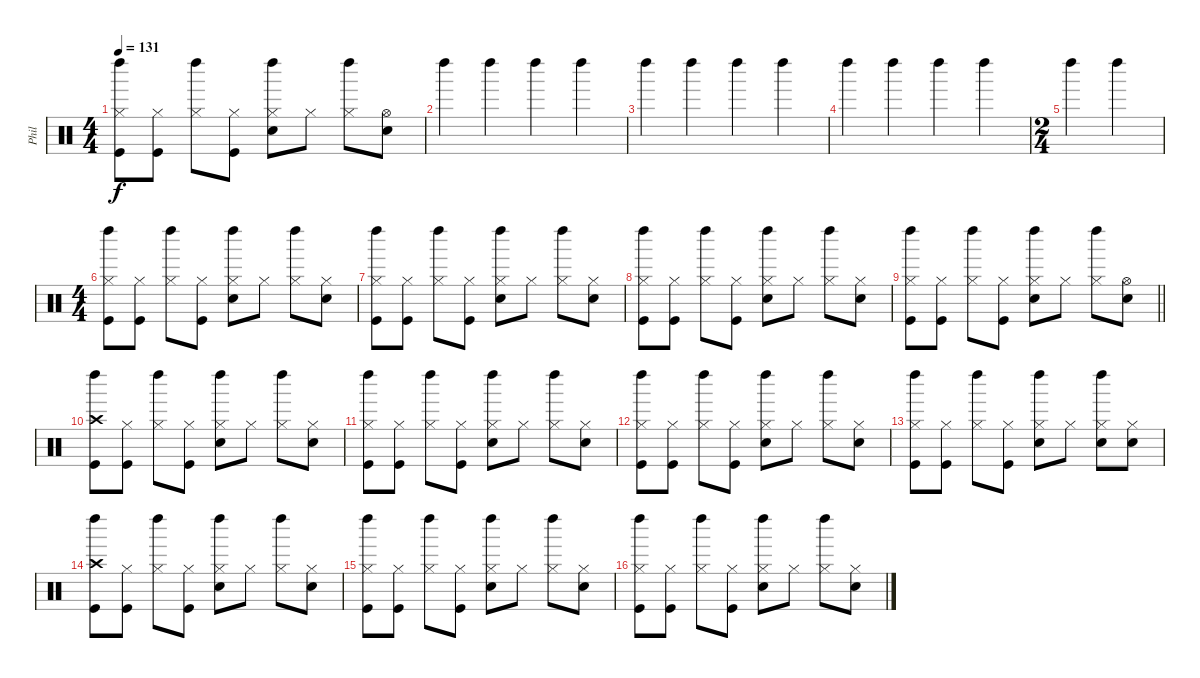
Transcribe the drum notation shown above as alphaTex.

\track ("Phil" "Phil") {instrument percussion}
\staff {score}
\articulation defaults
\ts (4 4)
\tempo 131
\clef neutral
\ks c
("Left Maraca (hit)" "Hi-Hat (closed)" "Kick (hit)").8{dy f} ("Hi-Hat (closed)" "Kick (hit)").8 ("Left Maraca (hit)" "Hi-Hat (closed)").8 ("Hi-Hat (closed)" "Kick (hit)").8 ("Left Maraca (hit)" "Hi-Hat (closed)" "Electric Snare (hit)").8 "Hi-Hat (closed)".8 ("Left Maraca (hit)" "Hi-Hat (closed)").8 ("Hi-Hat (open)" "Electric Snare (hit)").8 |
"Left Maraca (hit)".4 "Left Maraca (hit)".4 "Left Maraca (hit)".4 "Left Maraca (hit)".4 |
"Left Maraca (hit)".4 "Left Maraca (hit)".4 "Left Maraca (hit)".4 "Left Maraca (hit)".4 |
"Left Maraca (hit)".4 "Left Maraca (hit)".4 "Left Maraca (hit)".4 "Left Maraca (hit)".4 |
\ts (2 4)
"Left Maraca (hit)".4 "Left Maraca (hit)".4 |
\ts (4 4)
("Left Maraca (hit)" "Hi-Hat (closed)" "Kick (hit)").8 ("Hi-Hat (closed)" "Kick (hit)").8 ("Left Maraca (hit)" "Hi-Hat (closed)").8 ("Hi-Hat (closed)" "Kick (hit)").8 ("Left Maraca (hit)" "Hi-Hat (closed)" "Electric Snare (hit)").8 "Hi-Hat (closed)".8 ("Left Maraca (hit)" "Hi-Hat (closed)").8 ("Hi-Hat (closed)" "Electric Snare (hit)").8 |
("Left Maraca (hit)" "Hi-Hat (closed)" "Kick (hit)").8 ("Hi-Hat (closed)" "Kick (hit)").8 ("Left Maraca (hit)" "Hi-Hat (closed)").8 ("Hi-Hat (closed)" "Kick (hit)").8 ("Left Maraca (hit)" "Hi-Hat (closed)" "Electric Snare (hit)").8 "Hi-Hat (closed)".8 ("Left Maraca (hit)" "Hi-Hat (closed)").8 ("Hi-Hat (closed)" "Electric Snare (hit)").8 |
("Left Maraca (hit)" "Hi-Hat (closed)" "Kick (hit)").8 ("Hi-Hat (closed)" "Kick (hit)").8 ("Left Maraca (hit)" "Hi-Hat (closed)").8 ("Hi-Hat (closed)" "Kick (hit)").8 ("Left Maraca (hit)" "Hi-Hat (closed)" "Electric Snare (hit)").8 "Hi-Hat (closed)".8 ("Left Maraca (hit)" "Hi-Hat (closed)").8 ("Hi-Hat (closed)" "Electric Snare (hit)").8 |
\barLineRight lightlight
("Left Maraca (hit)" "Hi-Hat (closed)" "Kick (hit)").8 ("Hi-Hat (closed)" "Kick (hit)").8 ("Left Maraca (hit)" "Hi-Hat (closed)").8 ("Hi-Hat (closed)" "Kick (hit)").8 ("Left Maraca (hit)" "Hi-Hat (closed)" "Electric Snare (hit)").8 "Hi-Hat (closed)".8 ("Left Maraca (hit)" "Hi-Hat (closed)").8 ("Hi-Hat (open)" "Electric Snare (hit)").8 |
("Left Maraca (hit)" "Crash high (hit)" "Kick (hit)").8 ("Hi-Hat (closed)" "Kick (hit)").8 ("Left Maraca (hit)" "Hi-Hat (closed)").8 ("Hi-Hat (closed)" "Kick (hit)").8 ("Left Maraca (hit)" "Hi-Hat (closed)" "Electric Snare (hit)").8 "Hi-Hat (closed)".8 ("Left Maraca (hit)" "Hi-Hat (closed)").8 ("Hi-Hat (closed)" "Electric Snare (hit)").8 |
("Left Maraca (hit)" "Hi-Hat (closed)" "Kick (hit)").8 ("Hi-Hat (closed)" "Kick (hit)").8 ("Left Maraca (hit)" "Hi-Hat (closed)").8 ("Hi-Hat (closed)" "Kick (hit)").8 ("Left Maraca (hit)" "Hi-Hat (closed)" "Electric Snare (hit)").8 "Hi-Hat (closed)".8 ("Left Maraca (hit)" "Hi-Hat (closed)").8 ("Hi-Hat (closed)" "Electric Snare (hit)").8 |
("Left Maraca (hit)" "Hi-Hat (closed)" "Kick (hit)").8 ("Hi-Hat (closed)" "Kick (hit)").8 ("Left Maraca (hit)" "Hi-Hat (closed)").8 ("Hi-Hat (closed)" "Kick (hit)").8 ("Left Maraca (hit)" "Hi-Hat (closed)" "Electric Snare (hit)").8 "Hi-Hat (closed)".8 ("Left Maraca (hit)" "Hi-Hat (closed)").8 ("Hi-Hat (closed)" "Electric Snare (hit)").8 |
("Left Maraca (hit)" "Hi-Hat (closed)" "Kick (hit)").8 ("Hi-Hat (closed)" "Kick (hit)").8 ("Left Maraca (hit)" "Hi-Hat (closed)").8 ("Hi-Hat (closed)" "Kick (hit)").8 ("Left Maraca (hit)" "Hi-Hat (closed)" "Electric Snare (hit)").8 "Hi-Hat (closed)".8 ("Left Maraca (hit)" "Hi-Hat (closed)" "Electric Snare (hit)").8 ("Hi-Hat (closed)" "Electric Snare (hit)").8 |
("Left Maraca (hit)" "Crash high (hit)" "Kick (hit)").8 ("Hi-Hat (closed)" "Kick (hit)").8 ("Left Maraca (hit)" "Hi-Hat (closed)").8 ("Hi-Hat (closed)" "Kick (hit)").8 ("Left Maraca (hit)" "Hi-Hat (closed)" "Electric Snare (hit)").8 "Hi-Hat (closed)".8 ("Left Maraca (hit)" "Hi-Hat (closed)").8 ("Hi-Hat (closed)" "Electric Snare (hit)").8 |
("Left Maraca (hit)" "Hi-Hat (closed)" "Kick (hit)").8 ("Hi-Hat (closed)" "Kick (hit)").8 ("Left Maraca (hit)" "Hi-Hat (closed)").8 ("Hi-Hat (closed)" "Kick (hit)").8 ("Left Maraca (hit)" "Hi-Hat (closed)" "Electric Snare (hit)").8 "Hi-Hat (closed)".8 ("Left Maraca (hit)" "Hi-Hat (closed)").8 ("Hi-Hat (closed)" "Electric Snare (hit)").8 |
("Left Maraca (hit)" "Hi-Hat (closed)" "Kick (hit)").8 ("Hi-Hat (closed)" "Kick (hit)").8 ("Left Maraca (hit)" "Hi-Hat (closed)").8 ("Hi-Hat (closed)" "Kick (hit)").8 ("Left Maraca (hit)" "Hi-Hat (closed)" "Electric Snare (hit)").8 "Hi-Hat (closed)".8 ("Left Maraca (hit)" "Hi-Hat (closed)").8 ("Hi-Hat (closed)" "Electric Snare (hit)").8
